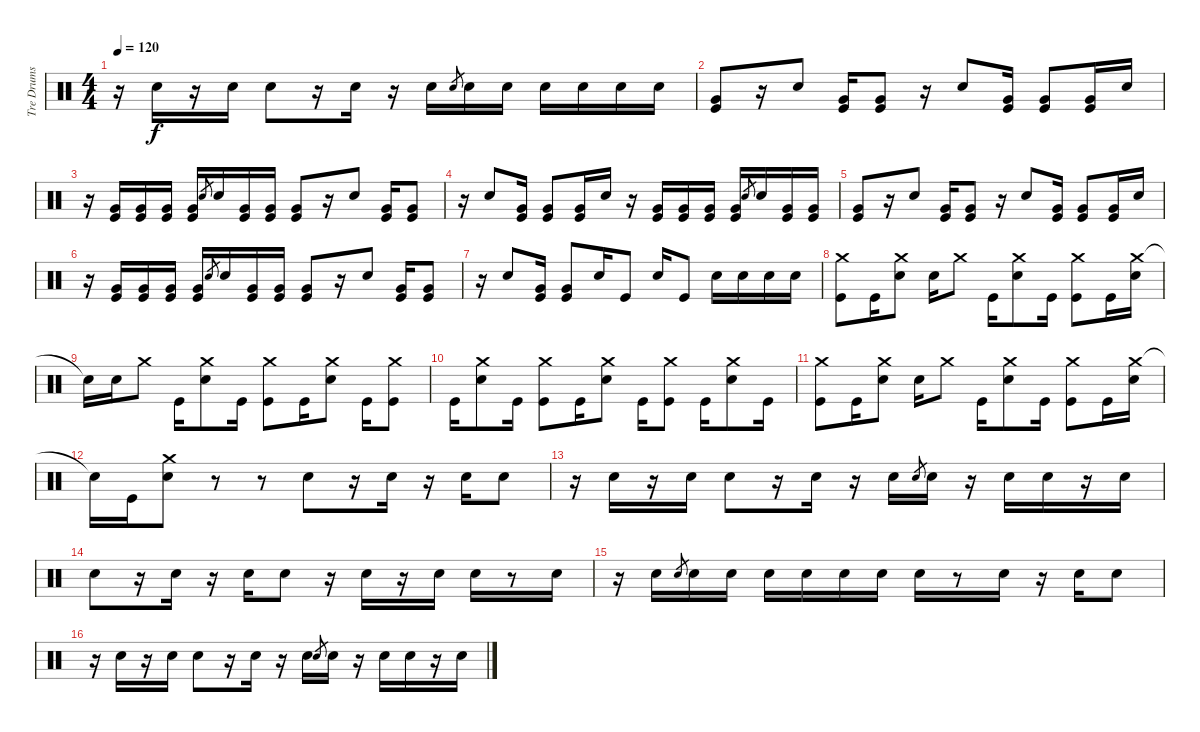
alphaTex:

\track ("Tre Drums" "Tre Drums") {instrument percussion}
\staff {score}
\articulation defaults
\ts (4 4)
\tempo 120
\clef neutral
\ks c
r.16{dy f} "Electric Snare (hit)".16 r.16 "Electric Snare (hit)".16 "Electric Snare (hit)".8 r.16 "Electric Snare (hit)".16 r.16 "Electric Snare (hit)".16 "Electric Snare (hit)".8{gr} "Electric Snare (hit)".16 "Electric Snare (hit)".16 "Electric Snare (hit)".16 "Electric Snare (hit)".16 "Electric Snare (hit)".16 "Electric Snare (hit)".16 |
("Very Low Tom (hit)" "Kick (hit)").8 r.16 "Electric Snare (hit)".8 ("Very Low Tom (hit)" "Kick (hit)").16 ("Very Low Tom (hit)" "Kick (hit)").8 r.16 "Electric Snare (hit)".8 ("Very Low Tom (hit)" "Kick (hit)").16 ("Very Low Tom (hit)" "Kick (hit)").8 ("Very Low Tom (hit)" "Kick (hit)").16 "Electric Snare (hit)".16 |
r.16 ("Very Low Tom (hit)" "Kick (hit)").16 ("Very Low Tom (hit)" "Kick (hit)").16 ("Very Low Tom (hit)" "Kick (hit)").16 ("Very Low Tom (hit)" "Kick (hit)").16 "Electric Snare (hit)".8{gr} "Electric Snare (hit)".16 ("Very Low Tom (hit)" "Kick (hit)").16 ("Very Low Tom (hit)" "Kick (hit)").16 ("Very Low Tom (hit)" "Kick (hit)").8 r.16 "Electric Snare (hit)".8 ("Very Low Tom (hit)" "Kick (hit)").16 ("Very Low Tom (hit)" "Kick (hit)").8 |
r.16 "Electric Snare (hit)".8 ("Very Low Tom (hit)" "Kick (hit)").16 ("Very Low Tom (hit)" "Kick (hit)").8 ("Very Low Tom (hit)" "Kick (hit)").16 "Electric Snare (hit)".16 r.16 ("Very Low Tom (hit)" "Kick (hit)").16 ("Very Low Tom (hit)" "Kick (hit)").16 ("Very Low Tom (hit)" "Kick (hit)").16 ("Very Low Tom (hit)" "Kick (hit)").16 "Electric Snare (hit)".8{gr} "Electric Snare (hit)".16 ("Very Low Tom (hit)" "Kick (hit)").16 ("Very Low Tom (hit)" "Kick (hit)").16 |
("Very Low Tom (hit)" "Kick (hit)").8 r.16 "Electric Snare (hit)".8 ("Very Low Tom (hit)" "Kick (hit)").16 ("Very Low Tom (hit)" "Kick (hit)").8 r.16 "Electric Snare (hit)".8 ("Very Low Tom (hit)" "Kick (hit)").16 ("Very Low Tom (hit)" "Kick (hit)").8 ("Very Low Tom (hit)" "Kick (hit)").16 "Electric Snare (hit)".16 |
r.16 ("Very Low Tom (hit)" "Kick (hit)").16 ("Very Low Tom (hit)" "Kick (hit)").16 ("Very Low Tom (hit)" "Kick (hit)").16 ("Very Low Tom (hit)" "Kick (hit)").16 "Electric Snare (hit)".8{gr} "Electric Snare (hit)".16 ("Very Low Tom (hit)" "Kick (hit)").16 ("Very Low Tom (hit)" "Kick (hit)").16 ("Very Low Tom (hit)" "Kick (hit)").8 r.16 "Electric Snare (hit)".8 ("Very Low Tom (hit)" "Kick (hit)").16 ("Very Low Tom (hit)" "Kick (hit)").8 |
r.16 "Electric Snare (hit)".8 ("Very Low Tom (hit)" "Kick (hit)").16 ("Very Low Tom (hit)" "Kick (hit)").8 "Electric Snare (hit)".16 "Kick (hit)".8 "Electric Snare (hit)".16 "Kick (hit)".8 "Electric Snare (hit)".16 "Electric Snare (hit)".16 "Electric Snare (hit)".16 "Electric Snare (hit)".16 |
("Crash medium (hit)" "Kick (hit)").8 "Kick (hit)".16 ("Crash medium (hit)" "Electric Snare (hit)").8 "Electric Snare (hit)".16 "Crash medium (hit)".8 "Kick (hit)".16 ("Crash medium (hit)" "Electric Snare (hit)").8 "Kick (hit)".16 ("Crash medium (hit)" "Kick (hit)").8 "Kick (hit)".16 ("Crash medium (hit)" "Electric Snare (hit)").16 |
"Snare (hit)"{t}.16 "Electric Snare (hit)".16 "Crash medium (hit)".8 "Kick (hit)".16 ("Crash medium (hit)" "Electric Snare (hit)").8 "Kick (hit)".16 ("Crash medium (hit)" "Kick (hit)").8 "Kick (hit)".16 ("Crash medium (hit)" "Electric Snare (hit)").8 "Kick (hit)".16 ("Crash medium (hit)" "Kick (hit)").8 |
"Kick (hit)".16 ("Crash medium (hit)" "Electric Snare (hit)").8 "Kick (hit)".16 ("Crash medium (hit)" "Kick (hit)").8 "Kick (hit)".16 ("Crash medium (hit)" "Electric Snare (hit)").8 "Kick (hit)".16 ("Crash medium (hit)" "Kick (hit)").8 "Kick (hit)".16 ("Crash medium (hit)" "Electric Snare (hit)").8 "Kick (hit)".16 |
("Crash medium (hit)" "Kick (hit)").8 "Kick (hit)".16 ("Crash medium (hit)" "Electric Snare (hit)").8 "Electric Snare (hit)".16 "Crash medium (hit)".8 "Kick (hit)".16 ("Crash medium (hit)" "Electric Snare (hit)").8 "Kick (hit)".16 ("Crash medium (hit)" "Kick (hit)").8 "Kick (hit)".16 ("Crash medium (hit)" "Electric Snare (hit)").16 |
"Snare (hit)"{t}.16 "Kick (hit)".16 ("Crash medium (hit)" "Electric Snare (hit)").8 r.8 r.8 "Electric Snare (hit)".8 r.16 "Electric Snare (hit)".16 r.16 "Electric Snare (hit)".16 "Electric Snare (hit)".8 |
r.16 "Electric Snare (hit)".16 r.16 "Electric Snare (hit)".16 "Electric Snare (hit)".8 r.16 "Electric Snare (hit)".16 r.16 "Electric Snare (hit)".16 "Electric Snare (hit)".8{gr} "Electric Snare (hit)".16 r.16 "Electric Snare (hit)".16 "Electric Snare (hit)".16 r.16 "Electric Snare (hit)".16 |
"Electric Snare (hit)".8 r.16 "Electric Snare (hit)".16 r.16 "Electric Snare (hit)".16 "Electric Snare (hit)".8 r.16 "Electric Snare (hit)".16 r.16 "Electric Snare (hit)".16 "Electric Snare (hit)".16 r.8 "Electric Snare (hit)".16 |
r.16 "Electric Snare (hit)".16 "Electric Snare (hit)".8{gr} "Electric Snare (hit)".16 "Electric Snare (hit)".16 "Electric Snare (hit)".16 "Electric Snare (hit)".16 "Electric Snare (hit)".16 "Electric Snare (hit)".16 "Electric Snare (hit)".16 r.8 "Electric Snare (hit)".16 r.16 "Electric Snare (hit)".16 "Electric Snare (hit)".8 |
r.16 "Electric Snare (hit)".16 r.16 "Electric Snare (hit)".16 "Electric Snare (hit)".8 r.16 "Electric Snare (hit)".16 r.16 "Electric Snare (hit)".16 "Electric Snare (hit)".8{gr} "Electric Snare (hit)".16 r.16 "Electric Snare (hit)".16 "Electric Snare (hit)".16 r.16 "Electric Snare (hit)".16
